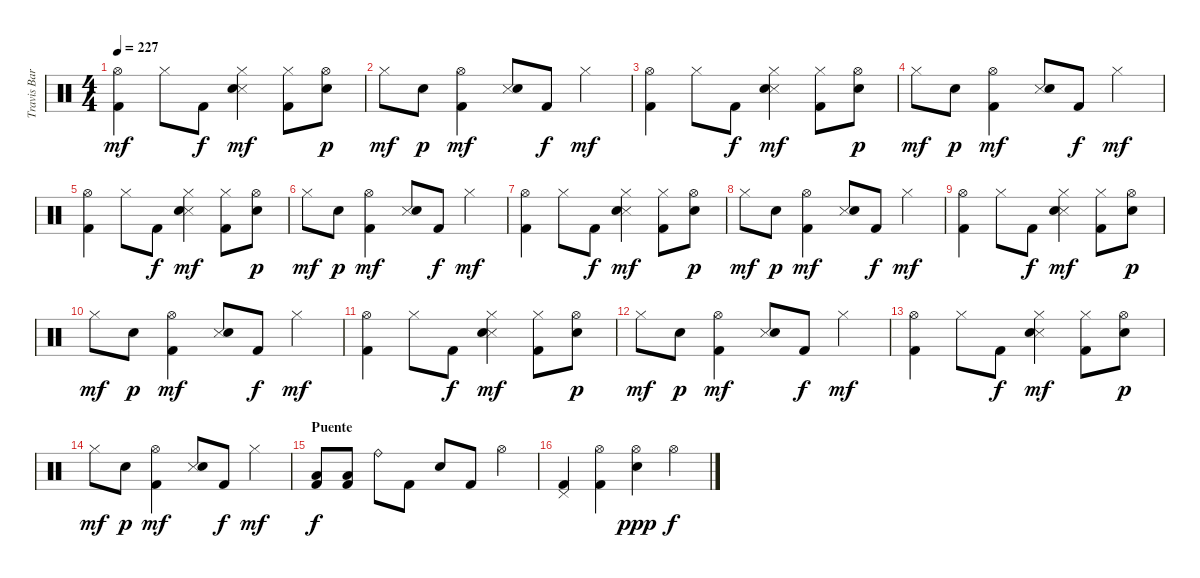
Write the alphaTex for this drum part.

\track ("Travis Barker - Batería" "Travis Bar") {instrument percussion}
\staff {score}
\articulation defaults
\ts (4 4)
\tempo 227
\clef neutral
\ks c
("Hi-Hat (open)" "Kick (hit) 2").4{dy mf} "Hi-Hat (closed)".8 "Kick (hit) 2".8{dy f} ("Hi-Hat (closed)" "Snare (side stick) 3" "Electric Snare (hit)").4{dy mf} ("Hi-Hat (closed)" "Kick (hit) 2").8 ("Hi-Hat (open)" "Electric Snare (hit)").8{dy p} |
"Hi-Hat (closed)".8{dy mf} "Electric Snare (hit)".8{dy p} ("Hi-Hat (open)" "Kick (hit) 2").4{dy mf} ("Snare (side stick) 3" "Electric Snare (hit)").8 "Kick (hit) 2".8{dy f} "Hi-Hat (closed)".4{dy mf} |
("Hi-Hat (open)" "Kick (hit) 2").4 "Hi-Hat (closed)".8 "Kick (hit) 2".8{dy f} ("Hi-Hat (closed)" "Snare (side stick) 3" "Electric Snare (hit)").4{dy mf} ("Hi-Hat (closed)" "Kick (hit) 2").8 ("Hi-Hat (open)" "Electric Snare (hit)").8{dy p} |
"Hi-Hat (closed)".8{dy mf} "Electric Snare (hit)".8{dy p} ("Hi-Hat (open)" "Kick (hit) 2").4{dy mf} ("Snare (side stick) 3" "Electric Snare (hit)").8 "Kick (hit) 2".8{dy f} "Hi-Hat (closed)".4{dy mf} |
("Hi-Hat (open)" "Kick (hit) 2").4 "Hi-Hat (closed)".8 "Kick (hit) 2".8{dy f} ("Hi-Hat (closed)" "Snare (side stick) 3" "Electric Snare (hit)").4{dy mf} ("Hi-Hat (closed)" "Kick (hit) 2").8 ("Hi-Hat (open)" "Electric Snare (hit)").8{dy p} |
"Hi-Hat (closed)".8{dy mf} "Electric Snare (hit)".8{dy p} ("Hi-Hat (open)" "Kick (hit) 2").4{dy mf} ("Snare (side stick) 3" "Electric Snare (hit)").8 "Kick (hit) 2".8{dy f} "Hi-Hat (closed)".4{dy mf} |
("Hi-Hat (open)" "Kick (hit) 2").4 "Hi-Hat (closed)".8 "Kick (hit) 2".8{dy f} ("Hi-Hat (closed)" "Snare (side stick) 3" "Electric Snare (hit)").4{dy mf} ("Hi-Hat (closed)" "Kick (hit) 2").8 ("Hi-Hat (open)" "Electric Snare (hit)").8{dy p} |
"Hi-Hat (closed)".8{dy mf} "Electric Snare (hit)".8{dy p} ("Hi-Hat (open)" "Kick (hit) 2").4{dy mf} ("Snare (side stick) 3" "Electric Snare (hit)").8 "Kick (hit) 2".8{dy f} "Hi-Hat (closed)".4{dy mf} |
("Hi-Hat (open)" "Kick (hit) 2").4 "Hi-Hat (closed)".8 "Kick (hit) 2".8{dy f} ("Hi-Hat (closed)" "Snare (side stick) 3" "Electric Snare (hit)").4{dy mf} ("Hi-Hat (closed)" "Kick (hit) 2").8 ("Hi-Hat (open)" "Electric Snare (hit)").8{dy p} |
"Hi-Hat (closed)".8{dy mf} "Electric Snare (hit)".8{dy p} ("Hi-Hat (open)" "Kick (hit) 2").4{dy mf} ("Snare (side stick) 3" "Electric Snare (hit)").8 "Kick (hit) 2".8{dy f} "Hi-Hat (closed)".4{dy mf} |
("Hi-Hat (open)" "Kick (hit) 2").4 "Hi-Hat (closed)".8 "Kick (hit) 2".8{dy f} ("Hi-Hat (closed)" "Snare (side stick) 3" "Electric Snare (hit)").4{dy mf} ("Hi-Hat (closed)" "Kick (hit) 2").8 ("Hi-Hat (open)" "Electric Snare (hit)").8{dy p} |
"Hi-Hat (closed)".8{dy mf} "Electric Snare (hit)".8{dy p} ("Hi-Hat (open)" "Kick (hit) 2").4{dy mf} ("Snare (side stick) 3" "Electric Snare (hit)").8 "Kick (hit) 2".8{dy f} "Hi-Hat (closed)".4{dy mf} |
("Hi-Hat (open)" "Kick (hit) 2").4 "Hi-Hat (closed)".8 "Kick (hit) 2".8{dy f} ("Hi-Hat (closed)" "Snare (side stick) 3" "Electric Snare (hit)").4{dy mf} ("Hi-Hat (closed)" "Kick (hit) 2").8 ("Hi-Hat (open)" "Electric Snare (hit)").8{dy p} |
"Hi-Hat (closed)".8{dy mf} "Electric Snare (hit)".8{dy p} ("Hi-Hat (open)" "Kick (hit) 2").4{dy mf} ("Snare (side stick) 3" "Electric Snare (hit)").8 "Kick (hit) 2".8{dy f} "Hi-Hat (closed)".4{dy mf} |
\section ("" "Puente")
("Low Floor Tom (hit)" "Kick (hit) 2").8{dy f} ("Low Floor Tom (hit)" "Kick (hit) 2").8 "Ride (bell)".8 "Kick (hit) 2".8 "Electric Snare (hit)".8 "Kick (hit) 2".8 "Hi-Hat (open)".4 |
("Pedal Hi-Hat (hit)" "Kick (hit) 2").4 ("Hi-Hat (open)" "Kick (hit) 2").4 ("Hi-Hat (open)" "Electric Snare (hit)").4{dy ppp} "Hi-Hat (open)".4{dy f}
